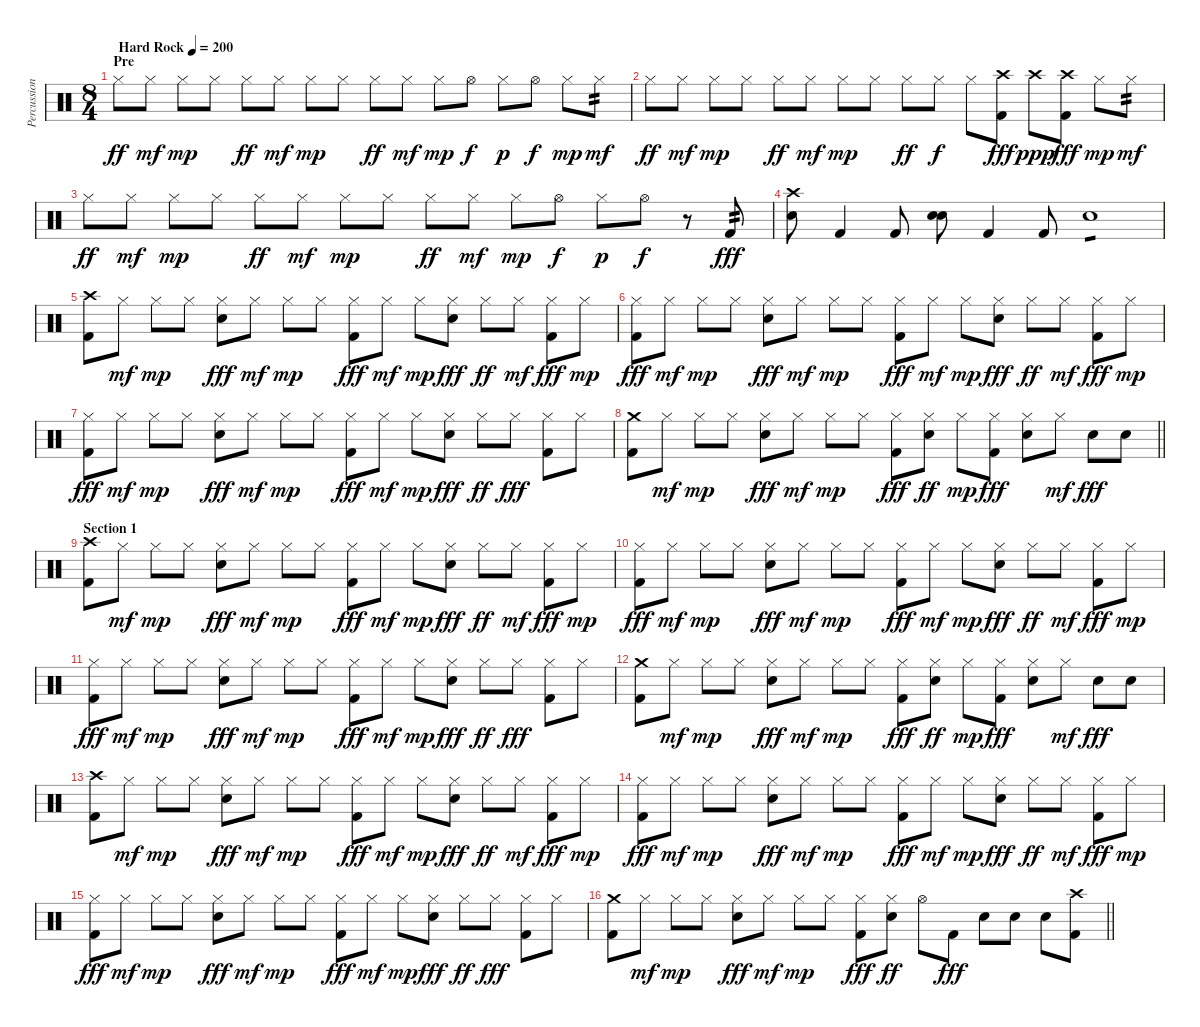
\track ("Percussion" "Percussion") {instrument percussion}
\staff {score}
\articulation defaults
\ts (8 4)
\section ("" "Pre")
\tempo (200 "Hard Rock")
\clef neutral
\ks c "Hi-Hat (closed)".8{dy ff} "Hi-Hat (closed)".8{dy mf} "Hi-Hat (closed)".8{dy mp} "Hi-Hat (closed)".8 "Hi-Hat (closed)".8{dy ff} "Hi-Hat (closed)".8{dy mf} "Hi-Hat (closed)".8{dy mp} "Hi-Hat (closed)".8 "Hi-Hat (closed)".8{dy ff} "Hi-Hat (closed)".8{dy mf} "Hi-Hat (closed)".8{dy mp} "Hi-Hat (open)".8{dy f} "Hi-Hat (closed)".8{dy p} "Hi-Hat (open)".8{dy f} "Hi-Hat (closed)".8{dy mp} "Hi-Hat (closed)".8{tp 2 dy mf}
|
"Hi-Hat (closed)".8{dy ff} "Hi-Hat (closed)".8{dy mf} "Hi-Hat (closed)".8{dy mp} "Hi-Hat (closed)".8 "Hi-Hat (closed)".8{dy ff} "Hi-Hat (closed)".8{dy mf} "Hi-Hat (closed)".8{dy mp} "Hi-Hat (closed)".8 "Hi-Hat (closed)".8{dy ff} "Hi-Hat (closed)".8{dy f} "Hi-Hat (closed)".8 ("Crash high (hit)" "Kick (hit) 2").8{dy fff} "Crash high (hit)".8{dy ppp} ("Crash high (hit)" "Kick (hit) 2").8{dy fff} "Hi-Hat (closed)".8{dy mp} "Hi-Hat (closed)".8{tp 2 dy mf} |
"Hi-Hat (closed)".8{dy ff} "Hi-Hat (closed)".8{dy mf} "Hi-Hat (closed)".8{dy mp} "Hi-Hat (closed)".8 "Hi-Hat (closed)".8{dy ff} "Hi-Hat (closed)".8{dy mf} "Hi-Hat (closed)".8{dy mp} "Hi-Hat (closed)".8 "Hi-Hat (closed)".8{dy ff} "Hi-Hat (closed)".8{dy mf} "Hi-Hat (closed)".8{dy mp} "Hi-Hat (open)".8{dy f} "Hi-Hat (closed)".8{dy p} "Hi-Hat (open)".8{dy f} r.8 "Kick (hit) 2".8{tp 2 dy fff} |
("Crash high (hit)" "Electric Snare (hit)").8 "Kick (hit) 2".4 "Kick (hit) 2".8 ("Electric Snare (hit)" "Electric Snare (hit)").8{bd 480} "Kick (hit) 2".4 "Kick (hit) 2".8 "Electric Snare (hit)".1{tp 1} |
("Crash high (hit)" "Kick (hit) 2").8 "Hi-Hat (closed)".8{dy mf} "Hi-Hat (closed)".8{dy mp} "Hi-Hat (closed)".8 ("Hi-Hat (closed)" "Electric Snare (hit)").8{dy fff} "Hi-Hat (closed)".8{dy mf} "Hi-Hat (closed)".8{dy mp} "Hi-Hat (closed)".8 ("Hi-Hat (closed)" "Kick (hit) 2").8{dy fff} "Hi-Hat (closed)".8{dy mf} "Hi-Hat (closed)".8{dy mp} ("Hi-Hat (closed)" "Electric Snare (hit)").8{dy fff} "Hi-Hat (closed)".8{dy ff} "Hi-Hat (closed)".8{dy mf} ("Hi-Hat (closed)" "Kick (hit) 2").8{dy fff} "Hi-Hat (closed)".8{dy mp} |
("Hi-Hat (closed)" "Kick (hit) 2").8{dy fff} "Hi-Hat (closed)".8{dy mf} "Hi-Hat (closed)".8{dy mp} "Hi-Hat (closed)".8 ("Hi-Hat (closed)" "Electric Snare (hit)").8{dy fff} "Hi-Hat (closed)".8{dy mf} "Hi-Hat (closed)".8{dy mp} "Hi-Hat (closed)".8 ("Hi-Hat (closed)" "Kick (hit) 2").8{dy fff} "Hi-Hat (closed)".8{dy mf} "Hi-Hat (closed)".8{dy mp} ("Hi-Hat (closed)" "Electric Snare (hit)").8{dy fff} "Hi-Hat (closed)".8{dy ff} "Hi-Hat (closed)".8{dy mf} ("Hi-Hat (closed)" "Kick (hit) 2").8{dy fff} "Hi-Hat (closed)".8{dy mp} |
("Hi-Hat (closed)" "Kick (hit) 2").8{dy fff} "Hi-Hat (closed)".8{dy mf} "Hi-Hat (closed)".8{dy mp} "Hi-Hat (closed)".8 ("Hi-Hat (closed)" "Electric Snare (hit)").8{dy fff} "Hi-Hat (closed)".8{dy mf} "Hi-Hat (closed)".8{dy mp} "Hi-Hat (closed)".8 ("Hi-Hat (closed)" "Kick (hit) 2").8{dy fff} "Hi-Hat (closed)".8{dy mf} "Hi-Hat (closed)".8{dy mp} ("Hi-Hat (closed)" "Electric Snare (hit)").8{dy fff} "Hi-Hat (closed)".8{dy ff} "Hi-Hat (closed)".8{dy fff} ("Hi-Hat (closed)" "Kick (hit) 2").8 "Hi-Hat (closed)".8 |
\barLineRight lightlight
("Crash medium (hit)" "Kick (hit) 2").8 "Hi-Hat (closed)".8{dy mf} "Hi-Hat (closed)".8{dy mp} "Hi-Hat (closed)".8 ("Hi-Hat (closed)" "Electric Snare (hit)").8{dy fff} "Hi-Hat (closed)".8{dy mf} "Hi-Hat (closed)".8{dy mp} "Hi-Hat (closed)".8 ("Hi-Hat (closed)" "Kick (hit) 2").8{dy fff} ("Hi-Hat (closed)" "Electric Snare (hit)").8{dy ff} "Hi-Hat (closed)".8{dy mp} ("Hi-Hat (closed)" "Kick (hit) 2").8{dy fff} ("Hi-Hat (closed)" "Electric Snare (hit)").8 "Hi-Hat (closed)".8{dy mf} "Electric Snare (hit)".8{dy fff} "Electric Snare (hit)".8 |
\section ("" "Section 1")
("Crash high (hit)" "Kick (hit) 2").8 "Hi-Hat (closed)".8{dy mf} "Hi-Hat (closed)".8{dy mp} "Hi-Hat (closed)".8 ("Hi-Hat (closed)" "Electric Snare (hit)").8{dy fff} "Hi-Hat (closed)".8{dy mf} "Hi-Hat (closed)".8{dy mp} "Hi-Hat (closed)".8 ("Hi-Hat (closed)" "Kick (hit) 2").8{dy fff} "Hi-Hat (closed)".8{dy mf} "Hi-Hat (closed)".8{dy mp} ("Hi-Hat (closed)" "Electric Snare (hit)").8{dy fff} "Hi-Hat (closed)".8{dy ff} "Hi-Hat (closed)".8{dy mf} ("Hi-Hat (closed)" "Kick (hit) 2").8{dy fff} "Hi-Hat (closed)".8{dy mp} |
("Hi-Hat (closed)" "Kick (hit) 2").8{dy fff} "Hi-Hat (closed)".8{dy mf} "Hi-Hat (closed)".8{dy mp} "Hi-Hat (closed)".8 ("Hi-Hat (closed)" "Electric Snare (hit)").8{dy fff} "Hi-Hat (closed)".8{dy mf} "Hi-Hat (closed)".8{dy mp} "Hi-Hat (closed)".8 ("Hi-Hat (closed)" "Kick (hit) 2").8{dy fff} "Hi-Hat (closed)".8{dy mf} "Hi-Hat (closed)".8{dy mp} ("Hi-Hat (closed)" "Electric Snare (hit)").8{dy fff} "Hi-Hat (closed)".8{dy ff} "Hi-Hat (closed)".8{dy mf} ("Hi-Hat (closed)" "Kick (hit) 2").8{dy fff} "Hi-Hat (closed)".8{dy mp} |
("Hi-Hat (closed)" "Kick (hit) 2").8{dy fff} "Hi-Hat (closed)".8{dy mf} "Hi-Hat (closed)".8{dy mp} "Hi-Hat (closed)".8 ("Hi-Hat (closed)" "Electric Snare (hit)").8{dy fff} "Hi-Hat (closed)".8{dy mf} "Hi-Hat (closed)".8{dy mp} "Hi-Hat (closed)".8 ("Hi-Hat (closed)" "Kick (hit) 2").8{dy fff} "Hi-Hat (closed)".8{dy mf} "Hi-Hat (closed)".8{dy mp} ("Hi-Hat (closed)" "Electric Snare (hit)").8{dy fff} "Hi-Hat (closed)".8{dy ff} "Hi-Hat (closed)".8{dy fff} ("Hi-Hat (closed)" "Kick (hit) 2").8 "Hi-Hat (closed)".8 |
("Crash medium (hit)" "Kick (hit) 2").8 "Hi-Hat (closed)".8{dy mf} "Hi-Hat (closed)".8{dy mp} "Hi-Hat (closed)".8 ("Hi-Hat (closed)" "Electric Snare (hit)").8{dy fff} "Hi-Hat (closed)".8{dy mf} "Hi-Hat (closed)".8{dy mp} "Hi-Hat (closed)".8 ("Hi-Hat (closed)" "Kick (hit) 2").8{dy fff} ("Hi-Hat (closed)" "Electric Snare (hit)").8{dy ff} "Hi-Hat (closed)".8{dy mp} ("Hi-Hat (closed)" "Kick (hit) 2").8{dy fff} ("Hi-Hat (closed)" "Electric Snare (hit)").8 "Hi-Hat (closed)".8{dy mf} "Electric Snare (hit)".8{dy fff} "Electric Snare (hit)".8 |
("Crash high (hit)" "Kick (hit) 2").8 "Hi-Hat (closed)".8{dy mf} "Hi-Hat (closed)".8{dy mp} "Hi-Hat (closed)".8 ("Hi-Hat (closed)" "Electric Snare (hit)").8{dy fff} "Hi-Hat (closed)".8{dy mf} "Hi-Hat (closed)".8{dy mp} "Hi-Hat (closed)".8 ("Hi-Hat (closed)" "Kick (hit) 2").8{dy fff} "Hi-Hat (closed)".8{dy mf} "Hi-Hat (closed)".8{dy mp} ("Hi-Hat (closed)" "Electric Snare (hit)").8{dy fff} "Hi-Hat (closed)".8{dy ff} "Hi-Hat (closed)".8{dy mf} ("Hi-Hat (closed)" "Kick (hit) 2").8{dy fff} "Hi-Hat (closed)".8{dy mp} |
("Hi-Hat (closed)" "Kick (hit) 2").8{dy fff} "Hi-Hat (closed)".8{dy mf} "Hi-Hat (closed)".8{dy mp} "Hi-Hat (closed)".8 ("Hi-Hat (closed)" "Electric Snare (hit)").8{dy fff} "Hi-Hat (closed)".8{dy mf} "Hi-Hat (closed)".8{dy mp} "Hi-Hat (closed)".8 ("Hi-Hat (closed)" "Kick (hit) 2").8{dy fff} "Hi-Hat (closed)".8{dy mf} "Hi-Hat (closed)".8{dy mp} ("Hi-Hat (closed)" "Electric Snare (hit)").8{dy fff} "Hi-Hat (closed)".8{dy ff} "Hi-Hat (closed)".8{dy mf} ("Hi-Hat (closed)" "Kick (hit) 2").8{dy fff} "Hi-Hat (closed)".8{dy mp} |
("Hi-Hat (closed)" "Kick (hit) 2").8{dy fff} "Hi-Hat (closed)".8{dy mf} "Hi-Hat (closed)".8{dy mp} "Hi-Hat (closed)".8 ("Hi-Hat (closed)" "Electric Snare (hit)").8{dy fff} "Hi-Hat (closed)".8{dy mf} "Hi-Hat (closed)".8{dy mp} "Hi-Hat (closed)".8 ("Hi-Hat (closed)" "Kick (hit) 2").8{dy fff} "Hi-Hat (closed)".8{dy mf} "Hi-Hat (closed)".8{dy mp} ("Hi-Hat (closed)" "Electric Snare (hit)").8{dy fff} "Hi-Hat (closed)".8{dy ff} "Hi-Hat (closed)".8{dy fff} ("Hi-Hat (closed)" "Kick (hit) 2").8 "Hi-Hat (closed)".8 |
\barLineRight lightlight
("Crash medium (hit)" "Kick (hit) 2").8 "Hi-Hat (closed)".8{dy mf} "Hi-Hat (closed)".8{dy mp} "Hi-Hat (closed)".8 ("Hi-Hat (closed)" "Electric Snare (hit)").8{dy fff} "Hi-Hat (closed)".8{dy mf} "Hi-Hat (closed)".8{dy mp} "Hi-Hat (closed)".8 ("Hi-Hat (closed)" "Kick (hit) 2").8{dy fff} ("Hi-Hat (closed)" "Electric Snare (hit)").8{dy ff} "Hi-Hat (open)".8 "Kick (hit) 2".8{dy fff} "Electric Snare (hit)".8 "Electric Snare (hit)".8 "Electric Snare (hit)".8 ("Crash high (hit)" "Kick (hit) 2").8
